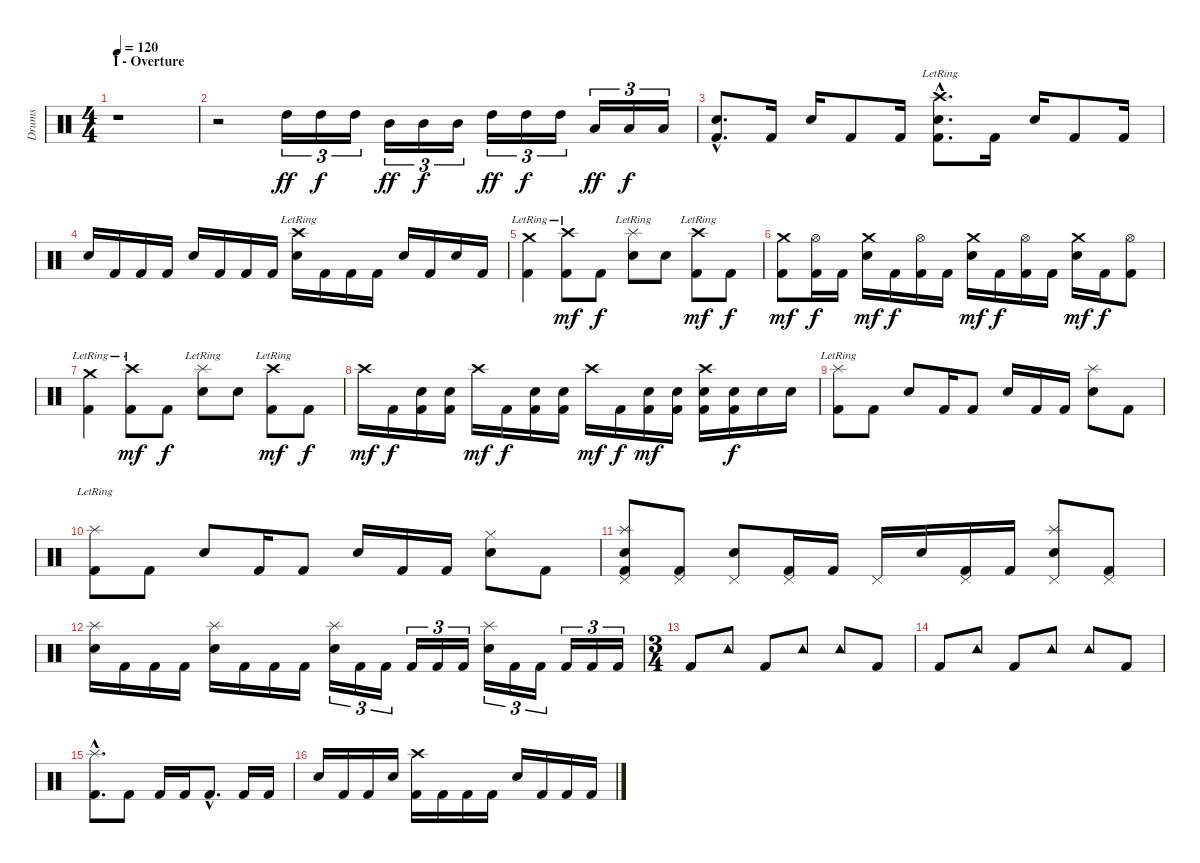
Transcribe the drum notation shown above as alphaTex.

\track ("Drums" "Drums") {instrument percussion}
\staff {score}
\articulation defaults
\ts (4 4)
\section ("" "I - Overture")
\tempo 120
\clef neutral
\ks c
r.1{dy ff} |
r.2 "High Tom (hit)".16{tu (3 2)} "High Tom (hit)".16{tu (3 2) dy f} "High Tom (hit)".16{tu (3 2)} "Mid Tom (hit)".16{tu (3 2) dy ff} "Mid Tom (hit)".16{tu (3 2) dy f} "Mid Tom (hit)".16{tu (3 2)} "High Tom (hit)".16{tu (3 2) dy ff} "High Tom (hit)".16{tu (3 2) dy f} "High Tom (hit)".16{tu (3 2)} "Low Tom (hit)".16{tu (3 2) dy ff} "Low Tom (hit)".16{tu (3 2) dy f} "Low Tom (hit)".16{tu (3 2)} |
("Electric Snare (hit)"{hac} "Kick (hit) 2"{hac}).8{d} "Kick (hit) 2".16 "Electric Snare (hit)".16 "Kick (hit) 2".8 "Kick (hit) 2".16 ("Crash high (hit)"{hac lr} "Electric Snare (hit)"{hac} "Kick (hit) 2"{hac}).8{d} "Kick (hit) 2".16 "Electric Snare (hit)".16 "Kick (hit) 2".8 "Kick (hit) 2".16 |
"Electric Snare (hit)".16 "Kick (hit) 2".16 "Kick (hit) 2".16 "Kick (hit) 2".16 "Electric Snare (hit)".16 "Kick (hit) 2".16 "Kick (hit) 2".16 "Kick (hit) 2".16 ("Crash high (hit)"{lr} "Electric Snare (hit)").16 "Kick (hit) 2".16 "Kick (hit) 2".16 "Kick (hit) 2".16 "Electric Snare (hit)".16 "Kick (hit) 2".16 "Electric Snare (hit)".16 "Kick (hit) 2".16 |
("Crash medium (hit)"{lr} "Kick (hit) 2").4{volume 14} ("Crash high (hit)"{lr} "Kick (hit) 2").8{dy mf} "Kick (hit) 2".8{dy f} ("Splash (hit)"{lr} "Electric Snare (hit)").8 "Electric Snare (hit)".8 ("Crash high (hit)"{lr} "Kick (hit) 2").8{dy mf} "Kick (hit) 2".8{dy f} |
("Crash medium (hit)" "Kick (hit) 2").8{dy mf} ("Hi-Hat (open)" "Kick (hit) 2").16{dy f} "Kick (hit) 2".16 ("Crash medium (hit)" "Electric Snare (hit)").16{dy mf} "Kick (hit) 2".16{dy f} ("Hi-Hat (open)" "Kick (hit) 2").16 "Kick (hit) 2".16 ("Crash medium (hit)" "Electric Snare (hit)").16{dy mf} "Kick (hit) 2".16{dy f} ("Hi-Hat (open)" "Kick (hit) 2").16 "Kick (hit) 2".16 ("Crash medium (hit)" "Electric Snare (hit)").16{dy mf} "Kick (hit) 2".16{dy f} ("Hi-Hat (open)" "Kick (hit) 2").8 |
("Crash medium (hit)"{lr} "Kick (hit) 2").4 ("Crash high (hit)"{lr} "Kick (hit) 2").8{dy mf} "Kick (hit) 2".8{dy f} ("Splash (hit)"{lr} "Electric Snare (hit)").8 "Electric Snare (hit)".8 ("Crash high (hit)"{lr} "Kick (hit) 2").8{dy mf} "Kick (hit) 2".8{dy f} |
"Crash high (hit)".16{dy mf} "Kick (hit) 2".16{dy f} ("Electric Snare (hit)" "Kick (hit) 2").16 ("Electric Snare (hit)" "Kick (hit) 2").16 "Crash high (hit)".16{dy mf} "Kick (hit) 2".16{dy f} ("Electric Snare (hit)" "Kick (hit) 2").16 ("Electric Snare (hit)" "Kick (hit) 2").16 "Crash high (hit)".16{dy mf} "Kick (hit) 2".16{dy f} ("Electric Snare (hit)" "Kick (hit) 2").16{dy mf} ("Electric Snare (hit)" "Kick (hit) 2").16 ("Crash high (hit)" "Electric Snare (hit)" "Kick (hit) 2").16 ("Electric Snare (hit)" "Kick (hit) 2").16{dy f} "Electric Snare (hit)".16 "Electric Snare (hit)".16 |
("Splash (hit)"{lr} "Kick (hit) 2").8 "Kick (hit) 2".8 "Electric Snare (hit)".8 "Kick (hit) 2".16 "Kick (hit) 2".8 "Electric Snare (hit)".16 "Kick (hit) 2".16 "Kick (hit) 2".16 ("Splash (hit)" "Electric Snare (hit)").8 "Kick (hit) 2".8 |
("Splash (hit)"{lr} "Kick (hit) 2").8 "Kick (hit) 2".8 "Electric Snare (hit)".8 "Kick (hit) 2".16 "Kick (hit) 2".8 "Electric Snare (hit)".16 "Kick (hit) 2".16 "Kick (hit) 2".16 ("Hi-Hat (closed)" "Electric Snare (hit)").8 "Kick (hit) 2".8 |
("Splash (hit)" "Pedal Hi-Hat (hit)" "Electric Snare (hit)" "Kick (hit) 2").8 ("Pedal Hi-Hat (hit)" "Kick (hit) 2").8 ("Pedal Hi-Hat (hit)" "Electric Snare (hit)").8 ("Pedal Hi-Hat (hit)" "Kick (hit) 2").16 "Kick (hit) 2".16 "Pedal Hi-Hat (hit)".16 "Electric Snare (hit)".16 ("Pedal Hi-Hat (hit)" "Kick (hit) 2").16 "Kick (hit) 2".16 ("Splash (hit)" "Pedal Hi-Hat (hit)" "Electric Snare (hit)").8 ("Pedal Hi-Hat (hit)" "Kick (hit) 2").8 |
("Splash (hit)" "Electric Snare (hit)").16 "Kick (hit) 2".16 "Kick (hit) 2".16 "Kick (hit) 2".16 ("Splash (hit)" "Electric Snare (hit)").16 "Kick (hit) 2".16 "Kick (hit) 2".16 "Kick (hit) 2".16 ("Splash (hit)" "Electric Snare (hit)").16{tu (3 2)} "Kick (hit) 2".16{tu (3 2)} "Kick (hit) 2".16{tu (3 2)} "Kick (hit) 2".16{tu (3 2)} "Kick (hit) 2".16{tu (3 2)} "Kick (hit) 2".16{tu (3 2)} ("Splash (hit)" "Electric Snare (hit)").16{tu (3 2)} "Kick (hit) 2".16{tu (3 2)} "Kick (hit) 2".16{tu (3 2)} "Kick (hit) 2".16{tu (3 2)} "Kick (hit) 2".16{tu (3 2)} "Kick (hit) 2".16{tu (3 2)} |
\ts (3 4)
"Kick (hit) 2".8 "Tambourine (hit)".8 "Kick (hit) 2".8 "Tambourine (hit)".8 "Tambourine (hit)".8 "Kick (hit) 2".8 |
"Kick (hit) 2".8 "Tambourine (hit)".8 "Kick (hit) 2".8 "Tambourine (hit)".8 "Tambourine (hit)".8 "Kick (hit) 2".8 |
("Splash (hit)"{hac} "Kick (hit) 2"{hac}).8{d} "Kick (hit) 2".8 "Kick (hit) 2".16 "Kick (hit) 2".16 "Kick (hit) 2"{hac}.8{d} "Kick (hit) 2".16 "Kick (hit) 2".16 |
"Electric Snare (hit)".16 "Kick (hit) 2".16 "Kick (hit) 2".16 "Electric Snare (hit)".16 ("Crash high (hit)" "Kick (hit) 2").16 "Kick (hit) 2".16 "Kick (hit) 2".16 "Kick (hit) 2".16 "Electric Snare (hit)".16 "Kick (hit) 2".16 "Kick (hit) 2".16 "Kick (hit) 2".16
